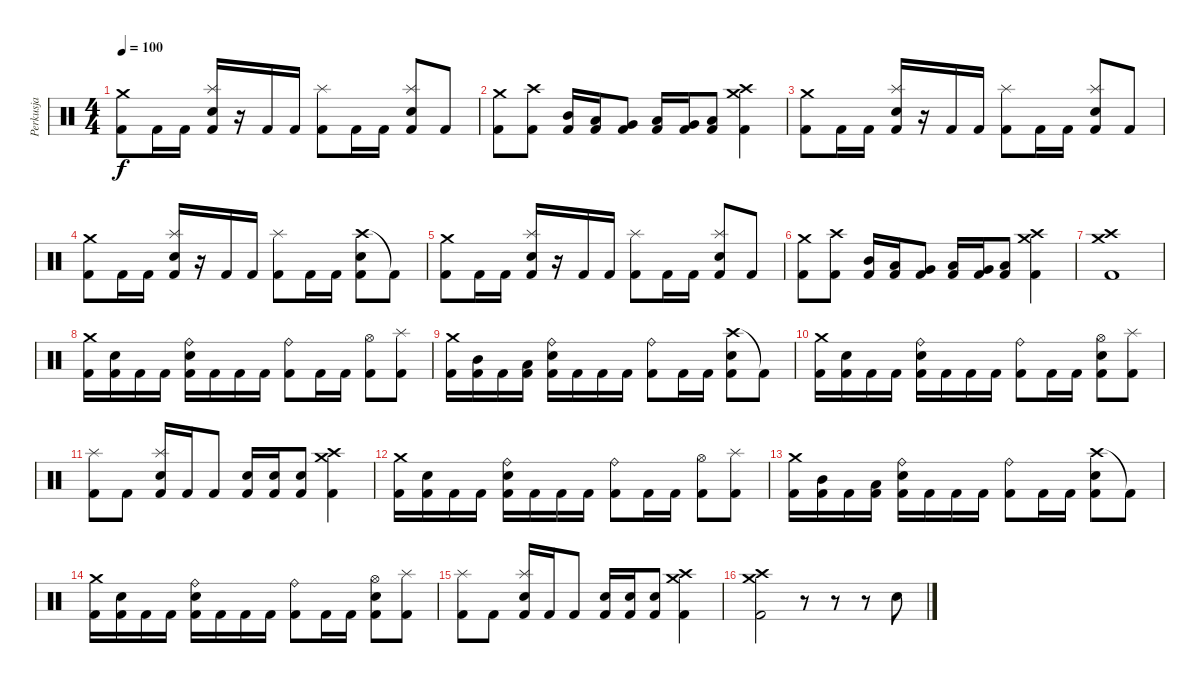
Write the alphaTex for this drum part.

\track ("Perkusja" "Perkusja") {instrument percussion}
\staff {score}
\articulation defaults
\ts (4 4)
\tempo 100
\clef neutral
\ks c
("Crash medium (hit)" "Kick (hit) 2").8{dy f} "Kick (hit) 2".16 "Kick (hit) 2".16 ("Splash (hit)" "Electric Snare (hit)" "Kick (hit) 2").16 r.16 "Kick (hit) 2".16 "Kick (hit) 2".16 ("Splash (hit)" "Kick (hit) 2").8 "Kick (hit) 2".16 "Kick (hit) 2".16 ("Splash (hit)" "Electric Snare (hit)" "Kick (hit) 2").8 "Kick (hit) 2".8 |
("Crash medium (hit)" "Kick (hit) 2").8 ("Crash high (hit)" "Kick (hit) 2").8 ("Mid Tom (hit)" "Kick (hit) 2").16 ("Low Tom (hit)" "Kick (hit) 2").16 ("Very Low Tom (hit)" "Kick (hit) 2").8 ("Low Tom (hit)" "Kick (hit) 2").16 ("Very Low Tom (hit)" "Kick (hit) 2").16 ("Low Floor Tom (hit)" "Kick (hit) 2").8 ("Crash medium (hit)" "Crash high (hit)" "Kick (hit) 2").4 |
("Crash medium (hit)" "Kick (hit) 2").8 "Kick (hit) 2".16 "Kick (hit) 2".16 ("Splash (hit)" "Electric Snare (hit)" "Kick (hit) 2").16 r.16 "Kick (hit) 2".16 "Kick (hit) 2".16 ("Splash (hit)" "Kick (hit) 2").8 "Kick (hit) 2".16 "Kick (hit) 2".16 ("Splash (hit)" "Electric Snare (hit)" "Kick (hit) 2").8 "Kick (hit) 2".8 |
("Crash medium (hit)" "Kick (hit) 2").8 "Kick (hit) 2".16 "Kick (hit) 2".16 ("Splash (hit)" "Electric Snare (hit)" "Kick (hit) 2").16 r.16 "Kick (hit) 2".16 "Kick (hit) 2".16 ("Splash (hit)" "Kick (hit) 2").8 "Kick (hit) 2".16 "Kick (hit) 2".16 ("Crash high (hit)" "Electric Snare (hit)" "Kick (hit) 2").8 "Kick (hit) 2"{t}.8 |
("Crash medium (hit)" "Kick (hit) 2").8 "Kick (hit) 2".16 "Kick (hit) 2".16 ("Splash (hit)" "Electric Snare (hit)" "Kick (hit) 2").16 r.16 "Kick (hit) 2".16 "Kick (hit) 2".16 ("Splash (hit)" "Kick (hit) 2").8 "Kick (hit) 2".16 "Kick (hit) 2".16 ("Splash (hit)" "Electric Snare (hit)" "Kick (hit) 2").8 "Kick (hit) 2".8 |
("Crash medium (hit)" "Kick (hit) 2").8 ("Crash high (hit)" "Kick (hit) 2").8 ("Mid Tom (hit)" "Kick (hit) 2").16 ("Low Tom (hit)" "Kick (hit) 2").16 ("Very Low Tom (hit)" "Kick (hit) 2").8 ("Low Tom (hit)" "Kick (hit) 2").16 ("Very Low Tom (hit)" "Kick (hit) 2").16 ("Low Floor Tom (hit)" "Kick (hit) 2").8 ("Crash medium (hit)" "Crash high (hit)" "Kick (hit) 2").4 |
("Crash medium (hit)" "Crash high (hit)" "Kick (hit) 2").1 |
("Crash medium (hit)" "Kick (hit) 2").16 ("Electric Snare (hit)" "Kick (hit) 2").16 "Kick (hit) 2".16 "Kick (hit) 2".16 ("Ride (bell)" "Electric Snare (hit)" "Kick (hit) 2").16 "Kick (hit) 2".16 "Kick (hit) 2".16 "Kick (hit) 2".16 ("Ride (bell)" "Kick (hit) 2").8 "Kick (hit) 2".16 "Kick (hit) 2".16 ("Hi-Hat (open)" "Kick (hit) 2").8 ("Splash (hit)" "Kick (hit) 2").8 |
("Crash medium (hit)" "Kick (hit) 2").16 ("Mid Tom (hit)" "Kick (hit) 2").16 "Kick (hit) 2".16 ("Low Tom (hit)" "Kick (hit) 2").16 ("Ride (bell)" "Electric Snare (hit)" "Kick (hit) 2").16 "Kick (hit) 2".16 "Kick (hit) 2".16 "Kick (hit) 2".16 ("Ride (bell)" "Kick (hit) 2").8 "Kick (hit) 2".16 "Kick (hit) 2".16 ("Crash high (hit)" "Electric Snare (hit)" "Kick (hit) 2").8 "Kick (hit) 2"{t}.8 |
("Crash medium (hit)" "Kick (hit) 2").16 ("Electric Snare (hit)" "Kick (hit) 2").16 "Kick (hit) 2".16 "Kick (hit) 2".16 ("Ride (bell)" "Electric Snare (hit)" "Kick (hit) 2").16 "Kick (hit) 2".16 "Kick (hit) 2".16 "Kick (hit) 2".16 ("Ride (bell)" "Kick (hit) 2").8 "Kick (hit) 2".16 "Kick (hit) 2".16 ("Hi-Hat (open)" "Electric Snare (hit)" "Kick (hit) 2").8 ("Splash (hit)" "Kick (hit) 2").8 |
("Splash (hit)" "Kick (hit) 2").8 "Kick (hit) 2".8 ("Splash (hit)" "Electric Snare (hit)" "Kick (hit) 2").16 "Kick (hit) 2".16 "Kick (hit) 2".8 ("Electric Snare (hit)" "Kick (hit) 2").16 ("Electric Snare (hit)" "Kick (hit) 2").16 ("Electric Snare (hit)" "Kick (hit) 2").8 ("Crash medium (hit)" "Crash high (hit)" "Kick (hit) 2").4 |
("Crash medium (hit)" "Kick (hit) 2").16 ("Electric Snare (hit)" "Kick (hit) 2").16 "Kick (hit) 2".16 "Kick (hit) 2".16 ("Ride (bell)" "Electric Snare (hit)" "Kick (hit) 2").16 "Kick (hit) 2".16 "Kick (hit) 2".16 "Kick (hit) 2".16 ("Ride (bell)" "Kick (hit) 2").8 "Kick (hit) 2".16 "Kick (hit) 2".16 ("Hi-Hat (open)" "Kick (hit) 2").8 ("Splash (hit)" "Kick (hit) 2").8 |
("Crash medium (hit)" "Kick (hit) 2").16 ("Mid Tom (hit)" "Kick (hit) 2").16 "Kick (hit) 2".16 ("Low Tom (hit)" "Kick (hit) 2").16 ("Ride (bell)" "Electric Snare (hit)" "Kick (hit) 2").16 "Kick (hit) 2".16 "Kick (hit) 2".16 "Kick (hit) 2".16 ("Ride (bell)" "Kick (hit) 2").8 "Kick (hit) 2".16 "Kick (hit) 2".16 ("Crash high (hit)" "Electric Snare (hit)" "Kick (hit) 2").8 "Kick (hit) 2"{t}.8 |
("Crash medium (hit)" "Kick (hit) 2").16 ("Electric Snare (hit)" "Kick (hit) 2").16 "Kick (hit) 2".16 "Kick (hit) 2".16 ("Ride (bell)" "Electric Snare (hit)" "Kick (hit) 2").16 "Kick (hit) 2".16 "Kick (hit) 2".16 "Kick (hit) 2".16 ("Ride (bell)" "Kick (hit) 2").8 "Kick (hit) 2".16 "Kick (hit) 2".16 ("Hi-Hat (open)" "Electric Snare (hit)" "Kick (hit) 2").8 ("Splash (hit)" "Kick (hit) 2").8 |
("Splash (hit)" "Kick (hit) 2").8 "Kick (hit) 2".8 ("Splash (hit)" "Electric Snare (hit)" "Kick (hit) 2").16 "Kick (hit) 2".16 "Kick (hit) 2".8 ("Electric Snare (hit)" "Kick (hit) 2").16 ("Electric Snare (hit)" "Kick (hit) 2").16 ("Electric Snare (hit)" "Kick (hit) 2").8 ("Crash medium (hit)" "Crash high (hit)" "Kick (hit) 2").4 |
("Crash medium (hit)" "Crash high (hit)" "Kick (hit) 2").2 r.8 r.8 r.8 "Electric Snare (hit)".8
